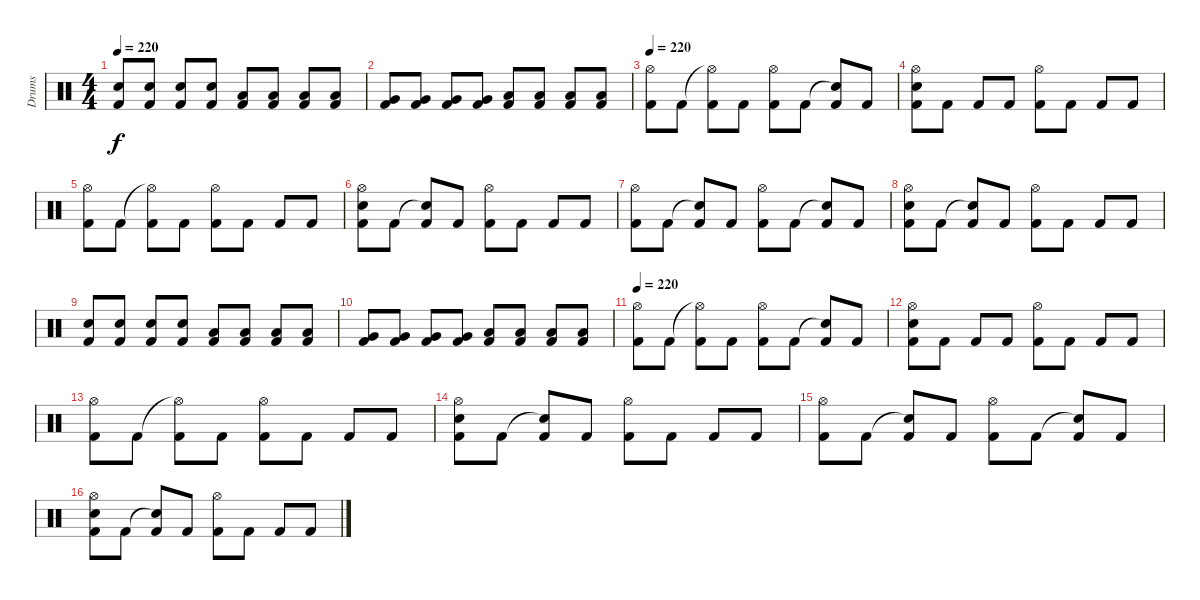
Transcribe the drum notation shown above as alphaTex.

\track ("Drums" "Drums") {instrument percussion}
\staff {score}
\articulation defaults
\ts (4 4)
\tempo 220
\clef neutral
\ks c
("Snare (hit) 2" "Kick (hit) 2").8{dy f} ("Snare (hit) 2" "Kick (hit) 2").8 ("Snare (hit) 2" "Kick (hit) 2").8 ("Snare (hit) 2" "Kick (hit) 2").8 ("Low Tom (hit)" "Kick (hit) 2").8 ("Low Tom (hit)" "Kick (hit) 2").8 ("Low Tom (hit)" "Kick (hit) 2").8 ("Low Tom (hit)" "Kick (hit) 2").8 |
("Very Low Tom (hit)" "Kick (hit) 2").8 ("Very Low Tom (hit)" "Kick (hit) 2").8 ("Very Low Tom (hit)" "Kick (hit) 2").8 ("Very Low Tom (hit)" "Kick (hit) 2").8 ("Low Floor Tom (hit)" "Kick (hit) 2").8 ("Low Floor Tom (hit)" "Kick (hit) 2").8 ("Low Floor Tom (hit)" "Kick (hit) 2").8 ("Low Floor Tom (hit)" "Kick (hit) 2").8 |
\tempo 250
\tempo 220
("Hi-Hat (open)" "Kick (hit) 2").8 "Kick (hit) 2".8 ("Hi-Hat (open)"{t} "Kick (hit) 2").8 "Kick (hit) 2".8 ("Hi-Hat (open)" "Kick (hit) 2").8 "Kick (hit) 2".8 ("Snare (hit)"{t} "Kick (hit) 2").8 "Kick (hit) 2".8 |
("Hi-Hat (open)" "Snare (hit) 2" "Kick (hit) 2").8 "Kick (hit) 2".8 "Kick (hit) 2".8 "Kick (hit) 2".8 ("Hi-Hat (open)" "Kick (hit) 2").8 "Kick (hit) 2".8 "Kick (hit) 2".8 "Kick (hit) 2".8 |
("Hi-Hat (open)" "Kick (hit) 2").8 "Kick (hit) 2".8 ("Hi-Hat (open)"{t} "Kick (hit) 2").8 "Kick (hit) 2".8 ("Hi-Hat (open)" "Kick (hit) 2").8 "Kick (hit) 2".8 "Kick (hit) 2".8 "Kick (hit) 2".8 |
("Hi-Hat (open)" "Snare (hit) 2" "Kick (hit) 2").8 "Kick (hit) 2".8 ("Snare (hit)"{t} "Kick (hit) 2").8 "Kick (hit) 2".8 ("Hi-Hat (open)" "Kick (hit) 2").8 "Kick (hit) 2".8 "Kick (hit) 2".8 "Kick (hit) 2".8 |
("Hi-Hat (open)" "Kick (hit) 2").8 "Kick (hit) 2".8 ("Snare (hit)"{t} "Kick (hit) 2").8 "Kick (hit) 2".8 ("Hi-Hat (open)" "Kick (hit) 2").8 "Kick (hit) 2".8 ("Snare (hit)"{t} "Kick (hit) 2").8 "Kick (hit) 2".8 |
("Hi-Hat (open)" "Snare (hit) 2" "Kick (hit) 2").8 "Kick (hit) 2".8 ("Snare (hit)"{t} "Kick (hit) 2").8 "Kick (hit) 2".8 ("Hi-Hat (open)" "Kick (hit) 2").8 "Kick (hit) 2".8 "Kick (hit) 2".8 "Kick (hit) 2".8 |
("Snare (hit) 2" "Kick (hit) 2").8 ("Snare (hit) 2" "Kick (hit) 2").8 ("Snare (hit) 2" "Kick (hit) 2").8 ("Snare (hit) 2" "Kick (hit) 2").8 ("Low Tom (hit)" "Kick (hit) 2").8 ("Low Tom (hit)" "Kick (hit) 2").8 ("Low Tom (hit)" "Kick (hit) 2").8 ("Low Tom (hit)" "Kick (hit) 2").8 |
("Very Low Tom (hit)" "Kick (hit) 2").8 ("Very Low Tom (hit)" "Kick (hit) 2").8 ("Very Low Tom (hit)" "Kick (hit) 2").8 ("Very Low Tom (hit)" "Kick (hit) 2").8 ("Low Floor Tom (hit)" "Kick (hit) 2").8 ("Low Floor Tom (hit)" "Kick (hit) 2").8 ("Low Floor Tom (hit)" "Kick (hit) 2").8 ("Low Floor Tom (hit)" "Kick (hit) 2").8 |
\tempo 250
\tempo 220
("Hi-Hat (open)" "Kick (hit) 2").8 "Kick (hit) 2".8 ("Hi-Hat (open)"{t} "Kick (hit) 2").8 "Kick (hit) 2".8 ("Hi-Hat (open)" "Kick (hit) 2").8 "Kick (hit) 2".8 ("Snare (hit)"{t} "Kick (hit) 2").8 "Kick (hit) 2".8 |
("Hi-Hat (open)" "Snare (hit) 2" "Kick (hit) 2").8 "Kick (hit) 2".8 "Kick (hit) 2".8 "Kick (hit) 2".8 ("Hi-Hat (open)" "Kick (hit) 2").8 "Kick (hit) 2".8 "Kick (hit) 2".8 "Kick (hit) 2".8 |
("Hi-Hat (open)" "Kick (hit) 2").8 "Kick (hit) 2".8 ("Hi-Hat (open)"{t} "Kick (hit) 2").8 "Kick (hit) 2".8 ("Hi-Hat (open)" "Kick (hit) 2").8 "Kick (hit) 2".8 "Kick (hit) 2".8 "Kick (hit) 2".8 |
("Hi-Hat (open)" "Snare (hit) 2" "Kick (hit) 2").8 "Kick (hit) 2".8 ("Snare (hit)"{t} "Kick (hit) 2").8 "Kick (hit) 2".8 ("Hi-Hat (open)" "Kick (hit) 2").8 "Kick (hit) 2".8 "Kick (hit) 2".8 "Kick (hit) 2".8 |
("Hi-Hat (open)" "Kick (hit) 2").8 "Kick (hit) 2".8 ("Snare (hit)"{t} "Kick (hit) 2").8 "Kick (hit) 2".8 ("Hi-Hat (open)" "Kick (hit) 2").8 "Kick (hit) 2".8 ("Snare (hit)"{t} "Kick (hit) 2").8 "Kick (hit) 2".8 |
("Hi-Hat (open)" "Snare (hit) 2" "Kick (hit) 2").8 "Kick (hit) 2".8 ("Snare (hit)"{t} "Kick (hit) 2").8 "Kick (hit) 2".8 ("Hi-Hat (open)" "Kick (hit) 2").8 "Kick (hit) 2".8 "Kick (hit) 2".8 "Kick (hit) 2".8
